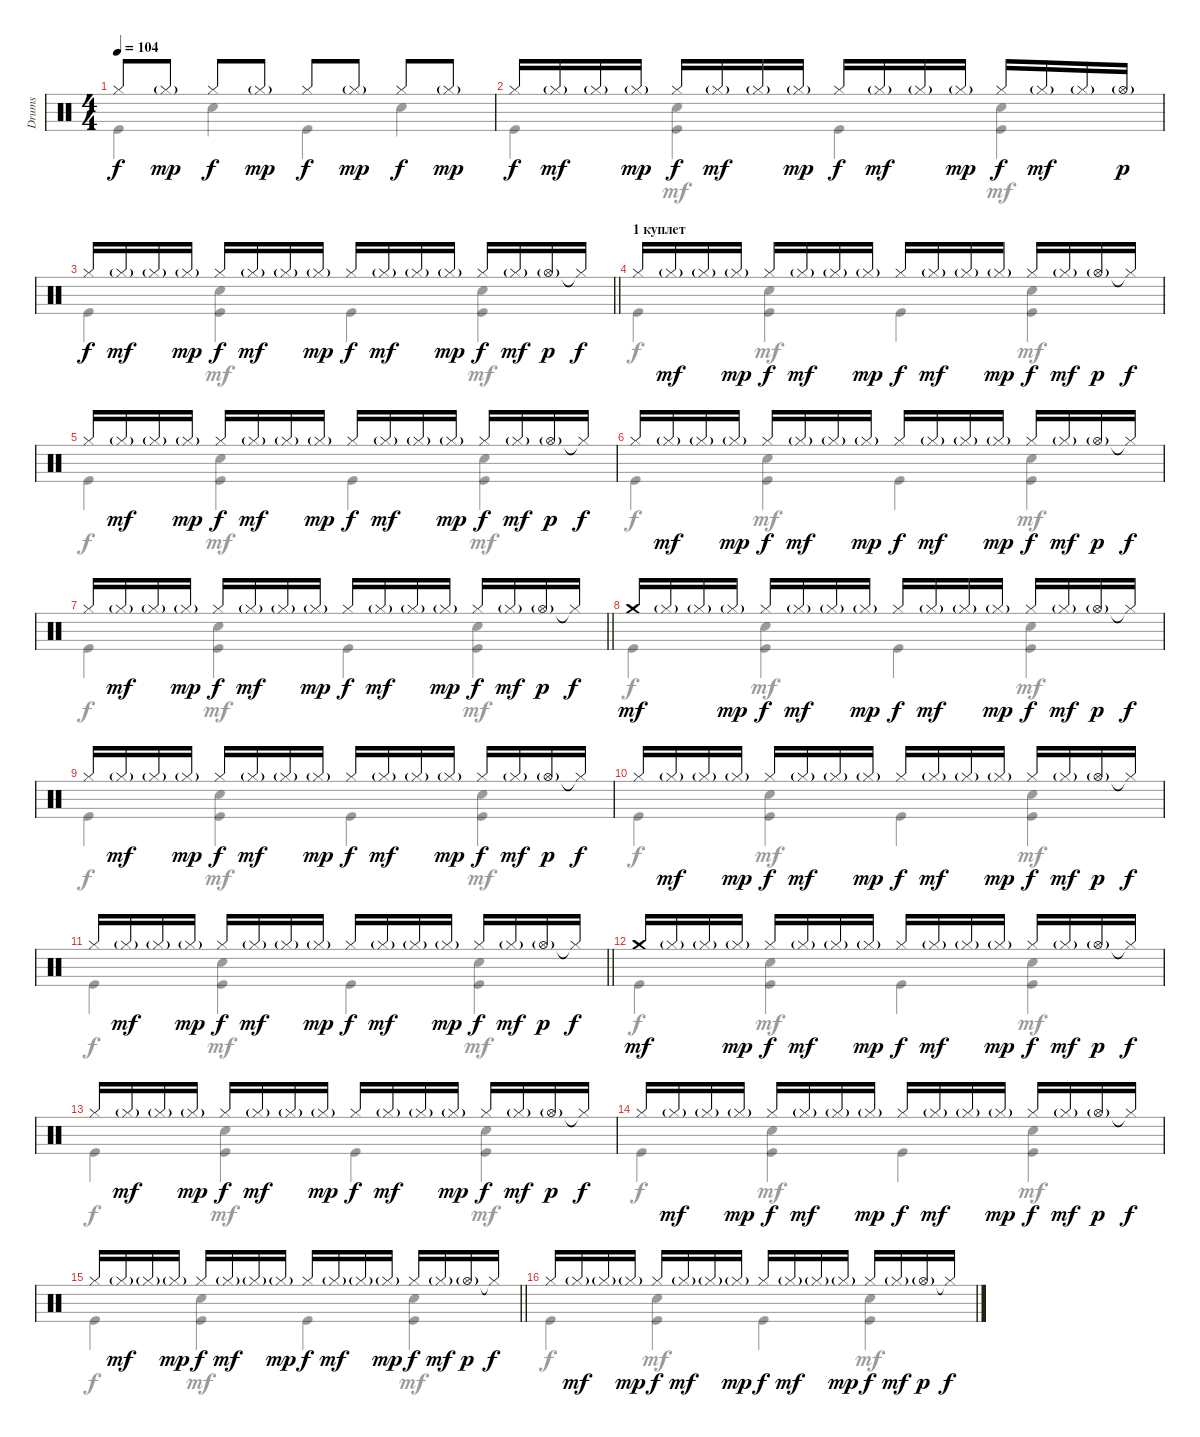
\track ("Drums" "Drums") {instrument percussion}
\staff {score}
\articulation defaults
\voice
\ts (4 4)
\tempo 104
\clef neutral
\ks c "Hi-Hat (closed)".8{dy f} "Hi-Hat (closed)"{g}.8{dy mp} "Hi-Hat (closed)".8{dy f} "Hi-Hat (closed)"{g}.8{dy mp} "Hi-Hat (closed)".8{dy f} "Hi-Hat (closed)"{g}.8{dy mp} "Hi-Hat (closed)".8{dy f} "Hi-Hat (closed)"{g}.8{dy mp}
|
"Hi-Hat (closed)".16{dy f} "Hi-Hat (closed)"{g}.16{dy mf} "Hi-Hat (closed)"{g}.16 "Hi-Hat (closed)"{g}.16{dy mp} "Hi-Hat (closed)".16{dy f} "Hi-Hat (closed)"{g}.16{dy mf} "Hi-Hat (closed)"{g}.16 "Hi-Hat (closed)"{g}.16{dy mp} "Hi-Hat (closed)".16{dy f} "Hi-Hat (closed)"{g}.16{dy mf} "Hi-Hat (closed)"{g}.16 "Hi-Hat (closed)"{g}.16{dy mp} "Hi-Hat (closed)".16{dy f} "Hi-Hat (closed)"{g}.16{dy mf} "Hi-Hat (closed)"{g}.16 "Hi-Hat (open)"{g}.16{dy p} |
\barLineRight lightlight "Hi-Hat (closed)".16{dy f} "Hi-Hat (closed)"{g}.16{dy mf} "Hi-Hat (closed)"{g}.16 "Hi-Hat (closed)"{g}.16{dy mp} "Hi-Hat (closed)".16{dy f} "Hi-Hat (closed)"{g}.16{dy mf} "Hi-Hat (closed)"{g}.16 "Hi-Hat (closed)"{g}.16{dy mp} "Hi-Hat (closed)".16{dy f} "Hi-Hat (closed)"{g}.16{dy mf} "Hi-Hat (closed)"{g}.16 "Hi-Hat (closed)"{g}.16{dy mp} "Hi-Hat (closed)".16{dy f} "Hi-Hat (closed)"{g}.16{dy mf} "Hi-Hat (open)"{g}.16{dy p} "Hi-Hat (closed)"{t}.16{dy f}
|
\section ("" "1 куплет ")
"Hi-Hat (closed)".16 "Hi-Hat (closed)"{g}.16{dy mf} "Hi-Hat (closed)"{g}.16 "Hi-Hat (closed)"{g}.16{dy mp} "Hi-Hat (closed)".16{dy f} "Hi-Hat (closed)"{g}.16{dy mf} "Hi-Hat (closed)"{g}.16 "Hi-Hat (closed)"{g}.16{dy mp} "Hi-Hat (closed)".16{dy f} "Hi-Hat (closed)"{g}.16{dy mf} "Hi-Hat (closed)"{g}.16 "Hi-Hat (closed)"{g}.16{dy mp} "Hi-Hat (closed)".16{dy f} "Hi-Hat (closed)"{g}.16{dy mf} "Hi-Hat (open)"{g}.16{dy p} "Hi-Hat (closed)"{t}.16{dy f} |
"Hi-Hat (closed)".16 "Hi-Hat (closed)"{g}.16{dy mf} "Hi-Hat (closed)"{g}.16 "Hi-Hat (closed)"{g}.16{dy mp} "Hi-Hat (closed)".16{dy f} "Hi-Hat (closed)"{g}.16{dy mf} "Hi-Hat (closed)"{g}.16 "Hi-Hat (closed)"{g}.16{dy mp} "Hi-Hat (closed)".16{dy f} "Hi-Hat (closed)"{g}.16{dy mf} "Hi-Hat (closed)"{g}.16 "Hi-Hat (closed)"{g}.16{dy mp} "Hi-Hat (closed)".16{dy f} "Hi-Hat (closed)"{g}.16{dy mf} "Hi-Hat (open)"{g}.16{dy p} "Hi-Hat (closed)"{t}.16{dy f} |
"Hi-Hat (closed)".16 "Hi-Hat (closed)"{g}.16{dy mf} "Hi-Hat (closed)"{g}.16 "Hi-Hat (closed)"{g}.16{dy mp} "Hi-Hat (closed)".16{dy f} "Hi-Hat (closed)"{g}.16{dy mf} "Hi-Hat (closed)"{g}.16 "Hi-Hat (closed)"{g}.16{dy mp} "Hi-Hat (closed)".16{dy f} "Hi-Hat (closed)"{g}.16{dy mf} "Hi-Hat (closed)"{g}.16 "Hi-Hat (closed)"{g}.16{dy mp} "Hi-Hat (closed)".16{dy f} "Hi-Hat (closed)"{g}.16{dy mf} "Hi-Hat (open)"{g}.16{dy p} "Hi-Hat (closed)"{t}.16{dy f} |
\barLineRight lightlight "Hi-Hat (closed)".16 "Hi-Hat (closed)"{g}.16{dy mf} "Hi-Hat (closed)"{g}.16 "Hi-Hat (closed)"{g}.16{dy mp} "Hi-Hat (closed)".16{dy f} "Hi-Hat (closed)"{g}.16{dy mf} "Hi-Hat (closed)"{g}.16 "Hi-Hat (closed)"{g}.16{dy mp} "Hi-Hat (closed)".16{dy f} "Hi-Hat (closed)"{g}.16{dy mf} "Hi-Hat (closed)"{g}.16 "Hi-Hat (closed)"{g}.16{dy mp} "Hi-Hat (closed)".16{dy f} "Hi-Hat (closed)"{g}.16{dy mf} "Hi-Hat (open)"{g}.16{dy p} "Hi-Hat (closed)"{t}.16{dy f}
|
"Crash medium (hit)".16{dy mf} "Hi-Hat (closed)"{g}.16 "Hi-Hat (closed)"{g}.16 "Hi-Hat (closed)"{g}.16{dy mp} "Hi-Hat (closed)".16{dy f} "Hi-Hat (closed)"{g}.16{dy mf} "Hi-Hat (closed)"{g}.16 "Hi-Hat (closed)"{g}.16{dy mp} "Hi-Hat (closed)".16{dy f} "Hi-Hat (closed)"{g}.16{dy mf} "Hi-Hat (closed)"{g}.16 "Hi-Hat (closed)"{g}.16{dy mp} "Hi-Hat (closed)".16{dy f} "Hi-Hat (closed)"{g}.16{dy mf} "Hi-Hat (open)"{g}.16{dy p} "Hi-Hat (closed)"{t}.16{dy f} |
"Hi-Hat (closed)".16 "Hi-Hat (closed)"{g}.16{dy mf} "Hi-Hat (closed)"{g}.16 "Hi-Hat (closed)"{g}.16{dy mp} "Hi-Hat (closed)".16{dy f} "Hi-Hat (closed)"{g}.16{dy mf} "Hi-Hat (closed)"{g}.16 "Hi-Hat (closed)"{g}.16{dy mp} "Hi-Hat (closed)".16{dy f} "Hi-Hat (closed)"{g}.16{dy mf} "Hi-Hat (closed)"{g}.16 "Hi-Hat (closed)"{g}.16{dy mp} "Hi-Hat (closed)".16{dy f} "Hi-Hat (closed)"{g}.16{dy mf} "Hi-Hat (open)"{g}.16{dy p} "Hi-Hat (closed)"{t}.16{dy f} |
"Hi-Hat (closed)".16 "Hi-Hat (closed)"{g}.16{dy mf} "Hi-Hat (closed)"{g}.16 "Hi-Hat (closed)"{g}.16{dy mp} "Hi-Hat (closed)".16{dy f} "Hi-Hat (closed)"{g}.16{dy mf} "Hi-Hat (closed)"{g}.16 "Hi-Hat (closed)"{g}.16{dy mp} "Hi-Hat (closed)".16{dy f} "Hi-Hat (closed)"{g}.16{dy mf} "Hi-Hat (closed)"{g}.16 "Hi-Hat (closed)"{g}.16{dy mp} "Hi-Hat (closed)".16{dy f} "Hi-Hat (closed)"{g}.16{dy mf} "Hi-Hat (open)"{g}.16{dy p} "Hi-Hat (closed)"{t}.16{dy f} |
\barLineRight lightlight "Hi-Hat (closed)".16 "Hi-Hat (closed)"{g}.16{dy mf} "Hi-Hat (closed)"{g}.16 "Hi-Hat (closed)"{g}.16{dy mp} "Hi-Hat (closed)".16{dy f} "Hi-Hat (closed)"{g}.16{dy mf} "Hi-Hat (closed)"{g}.16 "Hi-Hat (closed)"{g}.16{dy mp} "Hi-Hat (closed)".16{dy f} "Hi-Hat (closed)"{g}.16{dy mf} "Hi-Hat (closed)"{g}.16 "Hi-Hat (closed)"{g}.16{dy mp} "Hi-Hat (closed)".16{dy f} "Hi-Hat (closed)"{g}.16{dy mf} "Hi-Hat (open)"{g}.16{dy p} "Hi-Hat (closed)"{t}.16{dy f}
|
"Crash medium (hit)".16{dy mf} "Hi-Hat (closed)"{g}.16 "Hi-Hat (closed)"{g}.16 "Hi-Hat (closed)"{g}.16{dy mp} "Hi-Hat (closed)".16{dy f} "Hi-Hat (closed)"{g}.16{dy mf} "Hi-Hat (closed)"{g}.16 "Hi-Hat (closed)"{g}.16{dy mp} "Hi-Hat (closed)".16{dy f} "Hi-Hat (closed)"{g}.16{dy mf} "Hi-Hat (closed)"{g}.16 "Hi-Hat (closed)"{g}.16{dy mp} "Hi-Hat (closed)".16{dy f} "Hi-Hat (closed)"{g}.16{dy mf} "Hi-Hat (open)"{g}.16{dy p} "Hi-Hat (closed)"{t}.16{dy f} |
"Hi-Hat (closed)".16 "Hi-Hat (closed)"{g}.16{dy mf} "Hi-Hat (closed)"{g}.16 "Hi-Hat (closed)"{g}.16{dy mp} "Hi-Hat (closed)".16{dy f} "Hi-Hat (closed)"{g}.16{dy mf} "Hi-Hat (closed)"{g}.16 "Hi-Hat (closed)"{g}.16{dy mp} "Hi-Hat (closed)".16{dy f} "Hi-Hat (closed)"{g}.16{dy mf} "Hi-Hat (closed)"{g}.16 "Hi-Hat (closed)"{g}.16{dy mp} "Hi-Hat (closed)".16{dy f} "Hi-Hat (closed)"{g}.16{dy mf} "Hi-Hat (open)"{g}.16{dy p} "Hi-Hat (closed)"{t}.16{dy f} |
"Hi-Hat (closed)".16 "Hi-Hat (closed)"{g}.16{dy mf} "Hi-Hat (closed)"{g}.16 "Hi-Hat (closed)"{g}.16{dy mp} "Hi-Hat (closed)".16{dy f} "Hi-Hat (closed)"{g}.16{dy mf} "Hi-Hat (closed)"{g}.16 "Hi-Hat (closed)"{g}.16{dy mp} "Hi-Hat (closed)".16{dy f} "Hi-Hat (closed)"{g}.16{dy mf} "Hi-Hat (closed)"{g}.16 "Hi-Hat (closed)"{g}.16{dy mp} "Hi-Hat (closed)".16{dy f} "Hi-Hat (closed)"{g}.16{dy mf} "Hi-Hat (open)"{g}.16{dy p} "Hi-Hat (closed)"{t}.16{dy f} |
\barLineRight lightlight "Hi-Hat (closed)".16 "Hi-Hat (closed)"{g}.16{dy mf} "Hi-Hat (closed)"{g}.16 "Hi-Hat (closed)"{g}.16{dy mp} "Hi-Hat (closed)".16{dy f} "Hi-Hat (closed)"{g}.16{dy mf} "Hi-Hat (closed)"{g}.16 "Hi-Hat (closed)"{g}.16{dy mp} "Hi-Hat (closed)".16{dy f} "Hi-Hat (closed)"{g}.16{dy mf} "Hi-Hat (closed)"{g}.16 "Hi-Hat (closed)"{g}.16{dy mp} "Hi-Hat (closed)".16{dy f} "Hi-Hat (closed)"{g}.16{dy mf} "Hi-Hat (open)"{g}.16{dy p} "Hi-Hat (closed)"{t}.16{dy f}
|
"Hi-Hat (closed)".16 "Hi-Hat (closed)"{g}.16{dy mf} "Hi-Hat (closed)"{g}.16 "Hi-Hat (closed)"{g}.16{dy mp} "Hi-Hat (closed)".16{dy f} "Hi-Hat (closed)"{g}.16{dy mf} "Hi-Hat (closed)"{g}.16 "Hi-Hat (closed)"{g}.16{dy mp} "Hi-Hat (closed)".16{dy f} "Hi-Hat (closed)"{g}.16{dy mf} "Hi-Hat (closed)"{g}.16 "Hi-Hat (closed)"{g}.16{dy mp} "Hi-Hat (closed)".16{dy f} "Hi-Hat (closed)"{g}.16{dy mf} "Hi-Hat (open)"{g}.16{dy p} "Hi-Hat (closed)"{t}.16{dy f}
\voice
\clef neutral
\ottava regular
\simile none
\ks c "Kick (hit)".4{dy f} "Snare (hit) 2".4 "Kick (hit)".4 "Snare (hit) 2".4
|
"Kick (hit)".4 ("Snare (hit) 2" "Kick (hit)").4{dy mf} "Kick (hit)".4{dy f} ("Snare (hit) 2" "Kick (hit)").4{dy mf} |
\barLineRight lightlight "Kick (hit)".4{dy f}
("Snare (hit) 2" "Kick (hit)").4{dy mf} "Kick (hit)".4{dy f} ("Snare (hit) 2" "Kick (hit)").4{dy mf} |
"Kick (hit)".4{dy f} ("Snare (hit) 2" "Kick (hit)").4{dy mf} "Kick (hit)".4{dy f} ("Snare (hit) 2" "Kick (hit)").4{dy mf} |
"Kick (hit)".4{dy f} ("Snare (hit) 2" "Kick (hit)").4{dy mf} "Kick (hit)".4{dy f} ("Snare (hit) 2" "Kick (hit)").4{dy mf} |
"Kick (hit)".4{dy f} ("Snare (hit) 2" "Kick (hit)").4{dy mf} "Kick (hit)".4{dy f} ("Snare (hit) 2" "Kick (hit)").4{dy mf} |
\barLineRight lightlight "Kick (hit)".4{dy f}
("Snare (hit) 2" "Kick (hit)").4{dy mf} "Kick (hit)".4{dy f} ("Snare (hit) 2" "Kick (hit)").4{dy mf} |
"Kick (hit)".4{dy f} ("Snare (hit) 2" "Kick (hit)").4{dy mf} "Kick (hit)".4{dy f} ("Snare (hit) 2" "Kick (hit)").4{dy mf} |
"Kick (hit)".4{dy f} ("Snare (hit) 2" "Kick (hit)").4{dy mf} "Kick (hit)".4{dy f} ("Snare (hit) 2" "Kick (hit)").4{dy mf} |
"Kick (hit)".4{dy f} ("Snare (hit) 2" "Kick (hit)").4{dy mf} "Kick (hit)".4{dy f} ("Snare (hit) 2" "Kick (hit)").4{dy mf} |
\barLineRight lightlight "Kick (hit)".4{dy f}
("Snare (hit) 2" "Kick (hit)").4{dy mf} "Kick (hit)".4{dy f} ("Snare (hit) 2" "Kick (hit)").4{dy mf} |
"Kick (hit)".4{dy f} ("Snare (hit) 2" "Kick (hit)").4{dy mf} "Kick (hit)".4{dy f} ("Snare (hit) 2" "Kick (hit)").4{dy mf} |
"Kick (hit)".4{dy f} ("Snare (hit) 2" "Kick (hit)").4{dy mf} "Kick (hit)".4{dy f} ("Snare (hit) 2" "Kick (hit)").4{dy mf} |
"Kick (hit)".4{dy f} ("Snare (hit) 2" "Kick (hit)").4{dy mf} "Kick (hit)".4{dy f} ("Snare (hit) 2" "Kick (hit)").4{dy mf} |
\barLineRight lightlight "Kick (hit)".4{dy f}
("Snare (hit) 2" "Kick (hit)").4{dy mf} "Kick (hit)".4{dy f} ("Snare (hit) 2" "Kick (hit)").4{dy mf} |
"Kick (hit)".4{dy f} ("Snare (hit) 2" "Kick (hit)").4{dy mf} "Kick (hit)".4{dy f} ("Snare (hit) 2" "Kick (hit)").4{dy mf}
